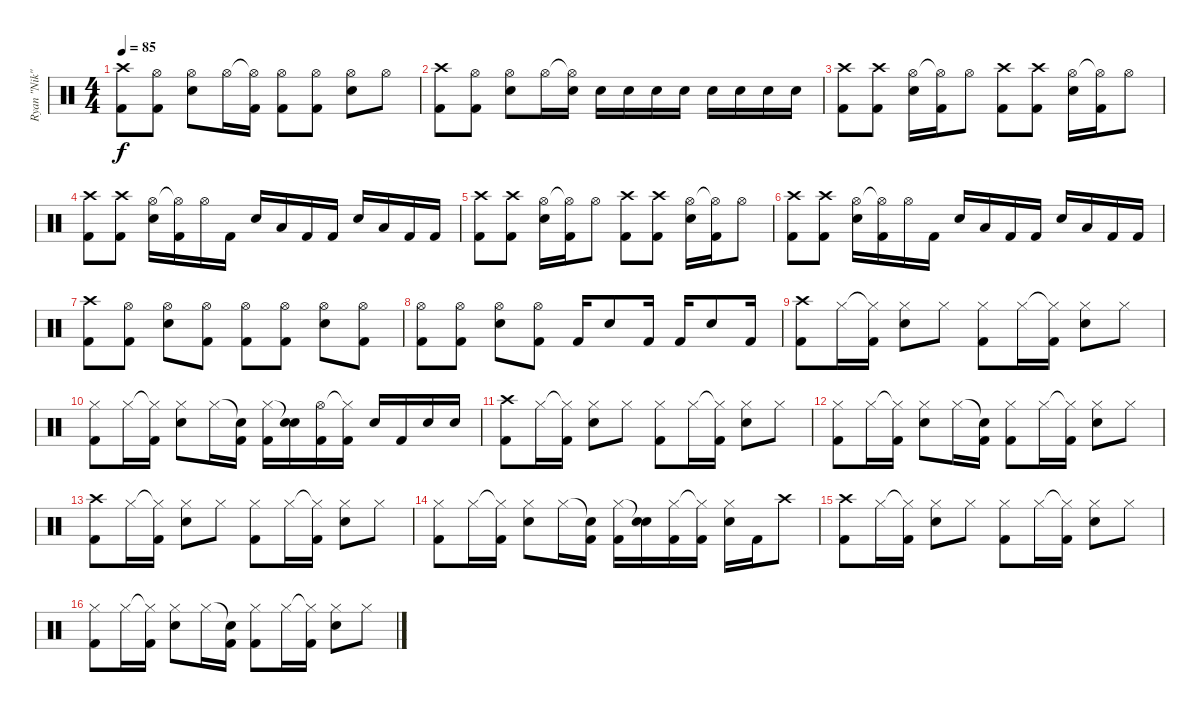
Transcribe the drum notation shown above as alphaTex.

\track ("Ryan \"Nik\" Vikedal (Drums)" "Ryan \"Nik\"") {instrument percussion}
\staff {score}
\articulation defaults
\ts (4 4)
\tempo 85
\clef neutral
\ks c
("Crash high (hit)" "Kick (hit) 2").8{dy f} ("Hi-Hat (open)" "Kick (hit) 2").8 ("Hi-Hat (open)" "Electric Snare (hit)").8 "Hi-Hat (open)".16 ("Hi-Hat (open)"{t} "Kick (hit) 2").16 ("Hi-Hat (open)" "Kick (hit) 2").8 ("Hi-Hat (open)" "Kick (hit) 2").8 ("Hi-Hat (open)" "Electric Snare (hit)").8 "Hi-Hat (open)".8 |
("Crash high (hit)" "Kick (hit) 2").8 ("Hi-Hat (open)" "Kick (hit) 2").8 ("Hi-Hat (open)" "Electric Snare (hit)").8 "Hi-Hat (open)".16 ("Hi-Hat (open)"{t} "Electric Snare (hit)").16 "Electric Snare (hit)".16 "Electric Snare (hit)".16 "Electric Snare (hit)".16 "Electric Snare (hit)".16 "Electric Snare (hit)".16 "Electric Snare (hit)".16 "Electric Snare (hit)".16 "Electric Snare (hit)".16 |
("Crash high (hit)" "Kick (hit) 2").8 ("Crash high (hit)" "Kick (hit) 2").8 ("Hi-Hat (open)" "Electric Snare (hit)").16 ("Hi-Hat (open)"{t} "Kick (hit) 2").16 "Hi-Hat (open)".8 ("Crash high (hit)" "Kick (hit) 2").8 ("Crash high (hit)" "Kick (hit) 2").8 ("Hi-Hat (open)" "Electric Snare (hit)").16 ("Hi-Hat (open)"{t} "Kick (hit) 2").16 "Hi-Hat (open)".8 |
("Crash high (hit)" "Kick (hit) 2").8 ("Crash high (hit)" "Kick (hit) 2").8 ("Hi-Hat (open)" "Electric Snare (hit)").16 ("Hi-Hat (open)"{t} "Kick (hit) 2").16 "Hi-Hat (open)".16 "Kick (hit) 2".16 "Electric Snare (hit)".16 "Low Tom (hit)".16 "Kick (hit) 2".16 "Kick (hit) 2".16 "Electric Snare (hit)".16 "Low Tom (hit)".16 "Kick (hit) 2".16 "Kick (hit) 2".16 |
("Crash high (hit)" "Kick (hit) 2").8 ("Crash high (hit)" "Kick (hit) 2").8 ("Hi-Hat (open)" "Electric Snare (hit)").16 ("Hi-Hat (open)"{t} "Kick (hit) 2").16 "Hi-Hat (open)".8 ("Crash high (hit)" "Kick (hit) 2").8 ("Crash high (hit)" "Kick (hit) 2").8 ("Hi-Hat (open)" "Electric Snare (hit)").16 ("Hi-Hat (open)"{t} "Kick (hit) 2").16 "Hi-Hat (open)".8 |
("Crash high (hit)" "Kick (hit) 2").8 ("Crash high (hit)" "Kick (hit) 2").8 ("Hi-Hat (open)" "Electric Snare (hit)").16 ("Hi-Hat (open)"{t} "Kick (hit) 2").16 "Hi-Hat (open)".16 "Kick (hit) 2".16 "Electric Snare (hit)".16 "Low Tom (hit)".16 "Kick (hit) 2".16 "Kick (hit) 2".16 "Electric Snare (hit)".16 "Low Tom (hit)".16 "Kick (hit) 2".16 "Kick (hit) 2".16 |
("Crash high (hit)" "Kick (hit) 2").8 ("Hi-Hat (open)" "Kick (hit) 2").8 ("Hi-Hat (open)" "Electric Snare (hit)").8 ("Hi-Hat (open)" "Kick (hit) 2").8 ("Hi-Hat (open)" "Kick (hit) 2").8 ("Hi-Hat (open)" "Kick (hit) 2").8 ("Hi-Hat (open)" "Electric Snare (hit)").8 ("Hi-Hat (open)" "Kick (hit) 2").8 |
("Hi-Hat (open)" "Kick (hit) 2").8 ("Hi-Hat (open)" "Kick (hit) 2").8 ("Hi-Hat (open)" "Electric Snare (hit)").8 ("Hi-Hat (open)" "Kick (hit) 2").8 "Kick (hit) 2".16 "Electric Snare (hit)".8 "Kick (hit) 2".16 "Kick (hit) 2".16 "Electric Snare (hit)".8 "Kick (hit) 2".16 |
("Crash high (hit)" "Kick (hit) 2").8 "Hi-Hat (closed)".16 ("Hi-Hat (closed)"{t} "Kick (hit) 2").16 ("Hi-Hat (closed)" "Electric Snare (hit)").8 "Hi-Hat (closed)".8 ("Hi-Hat (closed)" "Kick (hit) 2").8 "Hi-Hat (closed)".16 ("Hi-Hat (closed)"{t} "Kick (hit) 2").16 ("Hi-Hat (closed)" "Electric Snare (hit)").8 "Hi-Hat (closed)".8 |
("Hi-Hat (closed)" "Kick (hit) 2").8 "Hi-Hat (closed)".16 ("Hi-Hat (closed)"{t} "Kick (hit) 2").16 ("Hi-Hat (closed)" "Electric Snare (hit)").8 "Hi-Hat (closed)".16 ("Snare (hit)"{t} "Kick (hit) 2").16 ("Hi-Hat (closed)" "Kick (hit) 2").16 ("Snare (hit)"{t} "Electric Snare (hit)").16 ("Hi-Hat (open)" "Kick (hit) 2").16 ("Hi-Hat (closed)"{t} "Kick (hit) 2").16 "Electric Snare (hit)".16 "Kick (hit) 2".16 "Electric Snare (hit)".16 "Electric Snare (hit)".16 |
("Crash high (hit)" "Kick (hit) 2").8 "Hi-Hat (closed)".16 ("Hi-Hat (closed)"{t} "Kick (hit) 2").16 ("Hi-Hat (closed)" "Electric Snare (hit)").8 "Hi-Hat (closed)".8 ("Hi-Hat (closed)" "Kick (hit) 2").8 "Hi-Hat (closed)".16 ("Hi-Hat (closed)"{t} "Kick (hit) 2").16 ("Hi-Hat (closed)" "Electric Snare (hit)").8 "Hi-Hat (closed)".8 |
("Hi-Hat (closed)" "Kick (hit) 2").8 "Hi-Hat (closed)".16 ("Hi-Hat (closed)"{t} "Kick (hit) 2").16 ("Hi-Hat (closed)" "Electric Snare (hit)").8 "Hi-Hat (closed)".16 ("Snare (hit)"{t} "Kick (hit) 2").16 ("Hi-Hat (closed)" "Kick (hit) 2").8 "Hi-Hat (closed)".16 ("Hi-Hat (closed)"{t} "Kick (hit) 2").16 ("Hi-Hat (closed)" "Electric Snare (hit)").8 "Hi-Hat (closed)".8 |
("Crash high (hit)" "Kick (hit) 2").8 "Hi-Hat (closed)".16 ("Hi-Hat (closed)"{t} "Kick (hit) 2").16 ("Hi-Hat (closed)" "Electric Snare (hit)").8 "Hi-Hat (closed)".8 ("Hi-Hat (closed)" "Kick (hit) 2").8 "Hi-Hat (closed)".16 ("Hi-Hat (closed)"{t} "Kick (hit) 2").16 ("Hi-Hat (closed)" "Electric Snare (hit)").8 "Hi-Hat (closed)".8 |
("Hi-Hat (closed)" "Kick (hit) 2").8 "Hi-Hat (closed)".16 ("Hi-Hat (closed)"{t} "Kick (hit) 2").16 ("Hi-Hat (closed)" "Electric Snare (hit)").8 "Hi-Hat (closed)".16 ("Snare (hit)"{t} "Kick (hit) 2").16 ("Hi-Hat (closed)" "Kick (hit) 2").16 ("Snare (hit)"{t} "Electric Snare (hit)").16 ("Hi-Hat (closed)" "Kick (hit) 2").16 ("Hi-Hat (closed)"{t} "Kick (hit) 2").16 ("Hi-Hat (closed)" "Electric Snare (hit)").16 "Kick (hit) 2".16 "Crash high (hit)".8 |
("Crash high (hit)" "Kick (hit) 2").8 "Hi-Hat (closed)".16 ("Hi-Hat (closed)"{t} "Kick (hit) 2").16 ("Hi-Hat (closed)" "Electric Snare (hit)").8 "Hi-Hat (closed)".8 ("Hi-Hat (closed)" "Kick (hit) 2").8 "Hi-Hat (closed)".16 ("Hi-Hat (closed)"{t} "Kick (hit) 2").16 ("Hi-Hat (closed)" "Electric Snare (hit)").8 "Hi-Hat (closed)".8 |
("Hi-Hat (closed)" "Kick (hit) 2").8 "Hi-Hat (closed)".16 ("Hi-Hat (closed)"{t} "Kick (hit) 2").16 ("Hi-Hat (closed)" "Electric Snare (hit)").8 "Hi-Hat (closed)".16 ("Snare (hit)"{t} "Kick (hit) 2").16 ("Hi-Hat (closed)" "Kick (hit) 2").8 "Hi-Hat (closed)".16 ("Hi-Hat (closed)"{t} "Kick (hit) 2").16 ("Hi-Hat (closed)" "Electric Snare (hit)").8 "Hi-Hat (closed)".8
